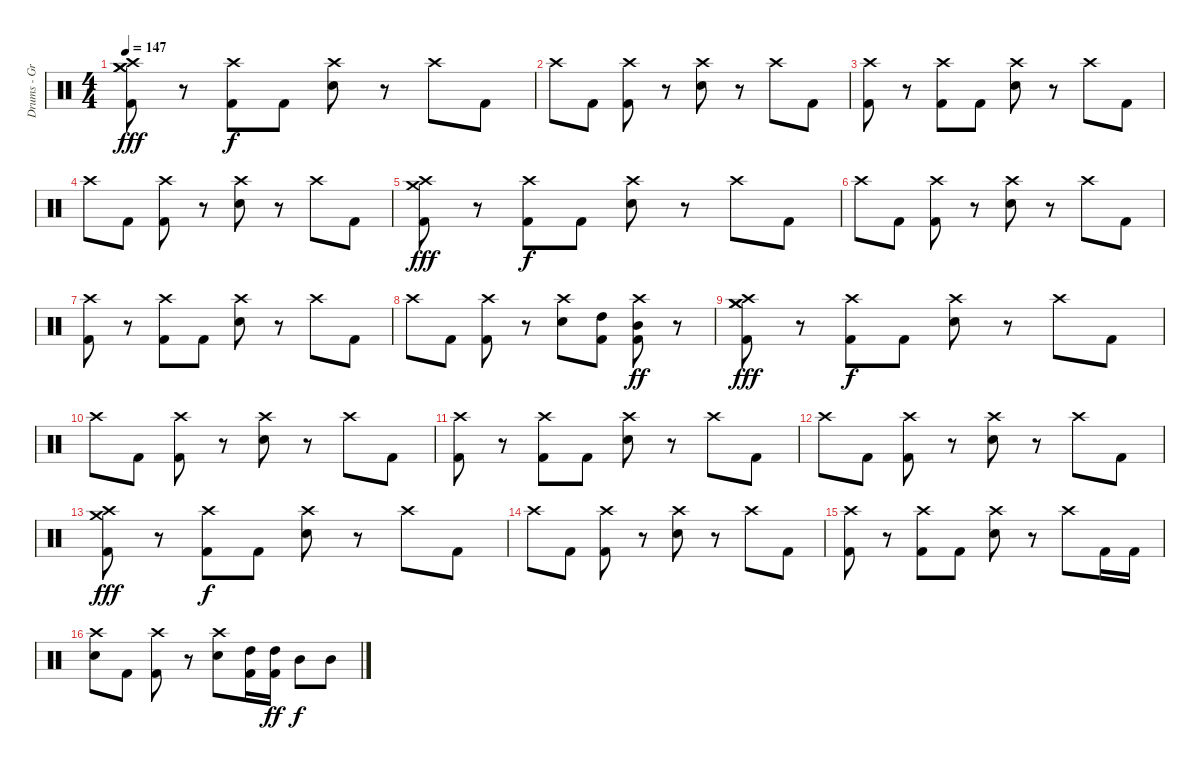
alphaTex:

\track ("Drums - Greg Upchurch" "Drums - Gr") {instrument percussion}
\staff {score}
\articulation defaults
\ts (4 4)
\tempo 147
\clef neutral
\ks c
("Crash medium (hit)" "Crash medium (hit)" "Crash high (hit)" "Kick (hit) 2").8{dy fff} r.8 ("Crash high (hit)" "Kick (hit) 2").8{dy f} "Kick (hit) 2".8 ("Crash high (hit)" "Electric Snare (hit)").8 r.8 "Crash high (hit)".8 "Kick (hit) 2".8 |
"Crash high (hit)".8 "Kick (hit) 2".8 ("Crash high (hit)" "Kick (hit) 2").8 r.8 ("Crash high (hit)" "Electric Snare (hit)").8 r.8 "Crash high (hit)".8 "Kick (hit) 2".8 |
("Crash high (hit)" "Kick (hit) 2").8 r.8 ("Crash high (hit)" "Kick (hit) 2").8 "Kick (hit) 2".8 ("Crash high (hit)" "Electric Snare (hit)").8 r.8 "Crash high (hit)".8 "Kick (hit) 2".8 |
"Crash high (hit)".8 "Kick (hit) 2".8 ("Crash high (hit)" "Kick (hit) 2").8 r.8 ("Crash high (hit)" "Electric Snare (hit)").8 r.8 "Crash high (hit)".8 "Kick (hit) 2".8 |
("Crash medium (hit)" "Crash high (hit)" "Kick (hit) 2").8{dy fff} r.8 ("Crash high (hit)" "Kick (hit) 2").8{dy f} "Kick (hit) 2".8 ("Crash high (hit)" "Electric Snare (hit)").8 r.8 "Crash high (hit)".8 "Kick (hit) 2".8 |
"Crash high (hit)".8 "Kick (hit) 2".8 ("Crash high (hit)" "Kick (hit) 2").8 r.8 ("Crash high (hit)" "Electric Snare (hit)").8 r.8 "Crash high (hit)".8 "Kick (hit) 2".8 |
("Crash high (hit)" "Kick (hit) 2").8 r.8 ("Crash high (hit)" "Kick (hit) 2").8 "Kick (hit) 2".8 ("Crash high (hit)" "Electric Snare (hit)").8 r.8 "Crash high (hit)".8 "Kick (hit) 2".8 |
"Crash high (hit)".8 "Kick (hit) 2".8 ("Crash high (hit)" "Kick (hit) 2").8 r.8 ("Crash high (hit)" "Electric Snare (hit)").8 ("High Tom (hit)" "Kick (hit) 2").8 ("Crash high (hit)" "Mid Tom (hit)" "Kick (hit) 2").8{dy ff} r.8 |
("Crash medium (hit)" "Crash medium (hit)" "Crash high (hit)" "Kick (hit) 2").8{dy fff} r.8 ("Crash high (hit)" "Kick (hit) 2").8{dy f} "Kick (hit) 2".8 ("Crash high (hit)" "Electric Snare (hit)").8 r.8 "Crash high (hit)".8 "Kick (hit) 2".8 |
"Crash high (hit)".8 "Kick (hit) 2".8 ("Crash high (hit)" "Kick (hit) 2").8 r.8 ("Crash high (hit)" "Electric Snare (hit)").8 r.8 "Crash high (hit)".8 "Kick (hit) 2".8 |
("Crash high (hit)" "Kick (hit) 2").8 r.8 ("Crash high (hit)" "Kick (hit) 2").8 "Kick (hit) 2".8 ("Crash high (hit)" "Electric Snare (hit)").8 r.8 "Crash high (hit)".8 "Kick (hit) 2".8 |
"Crash high (hit)".8 "Kick (hit) 2".8 ("Crash high (hit)" "Kick (hit) 2").8 r.8 ("Crash high (hit)" "Electric Snare (hit)").8 r.8 "Crash high (hit)".8 "Kick (hit) 2".8 |
("Crash medium (hit)" "Crash high (hit)" "Kick (hit) 2").8{dy fff} r.8 ("Crash high (hit)" "Kick (hit) 2").8{dy f} "Kick (hit) 2".8 ("Crash high (hit)" "Electric Snare (hit)").8 r.8 "Crash high (hit)".8 "Kick (hit) 2".8 |
"Crash high (hit)".8 "Kick (hit) 2".8 ("Crash high (hit)" "Kick (hit) 2").8 r.8 ("Crash high (hit)" "Electric Snare (hit)").8 r.8 "Crash high (hit)".8 "Kick (hit) 2".8 |
("Crash high (hit)" "Kick (hit) 2").8 r.8 ("Crash high (hit)" "Kick (hit) 2").8 "Kick (hit) 2".8 ("Crash high (hit)" "Electric Snare (hit)").8 r.8 "Crash high (hit)".8 "Kick (hit) 2".16 "Kick (hit) 2".16 |
("Crash high (hit)" "Electric Snare (hit)").8 "Kick (hit) 2".8 ("Crash high (hit)" "Kick (hit) 2").8 r.8 ("Crash high (hit)" "Electric Snare (hit)").8 ("High Tom (hit)" "Kick (hit) 2").16 ("High Tom (hit)" "Kick (hit) 2").16{dy ff} "Mid Tom (hit)".8{dy f} "Mid Tom (hit)".8
